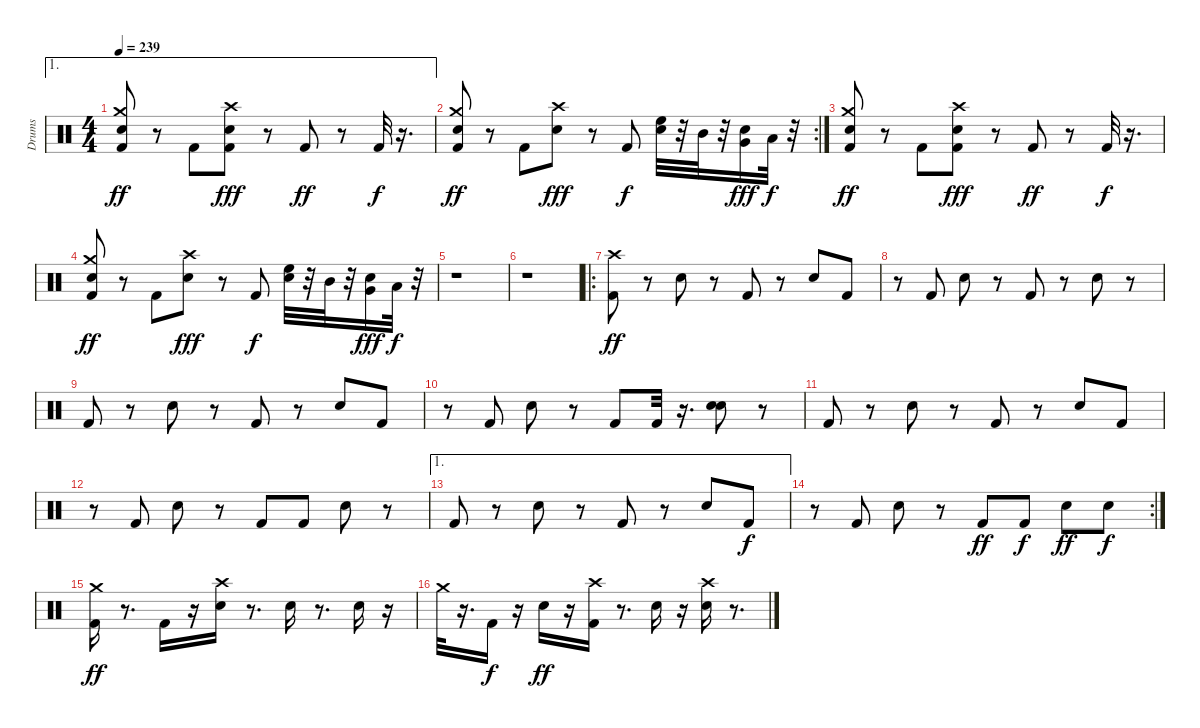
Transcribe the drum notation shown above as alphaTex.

\track ("Drums" "Drums") {instrument percussion}
\staff {score}
\articulation defaults
\ae 1
\ts (4 4)
\tempo 239
\clef neutral
\ks c
("Kick (hit) 2" "Crash medium (hit)" "Snare (hit) 2").8{dy ff} r.8 "Kick (hit) 2".8 ("Kick (hit) 2" "Snare (hit) 2" "Crash high (hit)").8{dy fff} r.8 "Kick (hit) 2".8{dy ff} r.8 "Kick (hit) 2".32{dy f} r.16{d} |
\rc 2
("Kick (hit) 2" "Crash medium (hit)" "Snare (hit) 2").8{dy ff} r.8 "Kick (hit) 2".8 ("Snare (hit) 2" "Crash high (hit)").8{dy fff} r.8 "Kick (hit) 2".8{dy f} ("High Floor Tom (hit)" "Snare (hit) 2").32 r.32 "Mid Tom (hit)".32 r.32 ("Snare (hit) 2" "Very Low Tom (hit)").16{dy fff} "Low Floor Tom (hit)".32{dy f} r.32 |
("Kick (hit) 2" "Crash medium (hit)" "Snare (hit) 2").8{dy ff} r.8 "Kick (hit) 2".8 ("Crash high (hit)" "Kick (hit) 2" "Snare (hit) 2").8{dy fff} r.8 "Kick (hit) 2".8{dy ff} r.8 "Kick (hit) 2".32{dy f} r.16{d} |
("Kick (hit) 2" "Crash medium (hit)" "Snare (hit) 2").8{dy ff} r.8 "Kick (hit) 2".8 ("Snare (hit) 2" "Crash high (hit)").8{dy fff} r.8 "Kick (hit) 2".8{dy f} ("High Floor Tom (hit)" "Snare (hit) 2").32 r.32 "Mid Tom (hit)".32 r.32 ("Snare (hit) 2" "Very Low Tom (hit)").16{dy fff} "Low Floor Tom (hit)".32{dy f} r.32 |
r.1 |
r.1 |
\ro
("Kick (hit) 2" "Crash high (hit)").8{dy ff} r.8 "Snare (hit) 2".8 r.8 "Kick (hit) 2".8 r.8 "Snare (hit) 2".8 "Kick (hit) 2".8 |
r.8 "Kick (hit) 2".8 "Snare (hit) 2".8 r.8 "Kick (hit) 2".8 r.8 "Snare (hit) 2".8 r.8 |
"Kick (hit) 2".8 r.8 "Snare (hit) 2".8 r.8 "Kick (hit) 2".8 r.8 "Snare (hit) 2".8 "Kick (hit) 2".8 |
r.8 "Kick (hit) 2".8 "Snare (hit) 2".8 r.8 "Kick (hit) 2".8 "Kick (hit) 2".32 r.16{d} ("Electric Snare (hit)" "Snare (hit) 2").8 r.8 |
"Kick (hit) 2".8 r.8 "Snare (hit) 2".8 r.8 "Kick (hit) 2".8 r.8 "Snare (hit) 2".8 "Kick (hit) 2".8 |
r.8 "Kick (hit) 2".8 "Snare (hit) 2".8 r.8 "Kick (hit) 2".8 "Kick (hit) 2".8 "Snare (hit) 2".8 r.8 |
\ae 1 "Kick (hit) 2".8
r.8 "Snare (hit) 2".8 r.8 "Kick (hit) 2".8 r.8 "Snare (hit) 2".8 "Kick (hit) 2".8{dy f} |
\rc 2
r.8 "Kick (hit) 2".8 "Snare (hit) 2".8 r.8 "Kick (hit) 2".8{dy ff} "Kick (hit) 2".8{dy f} "Snare (hit) 2".8{dy ff} "Snare (hit) 2".8{dy f} |
("Kick (hit) 2" "Crash medium (hit)").16{dy ff} r.8{d} "Kick (hit) 2".16 r.16 ("Snare (hit) 2" "Crash high (hit)").16 r.8{d} "Snare (hit) 2".16 r.8{d} "Snare (hit) 2".16 r.16 |
"Crash medium (hit)".32 r.16{d} "Kick (hit) 2".16{dy f} r.16 "Snare (hit) 2".16{dy ff} r.16 ("Kick (hit) 2" "Crash high (hit)").16 r.8{d} "Snare (hit) 2".16 r.16 ("Snare (hit) 2" "Crash high (hit)").16 r.8{d}
